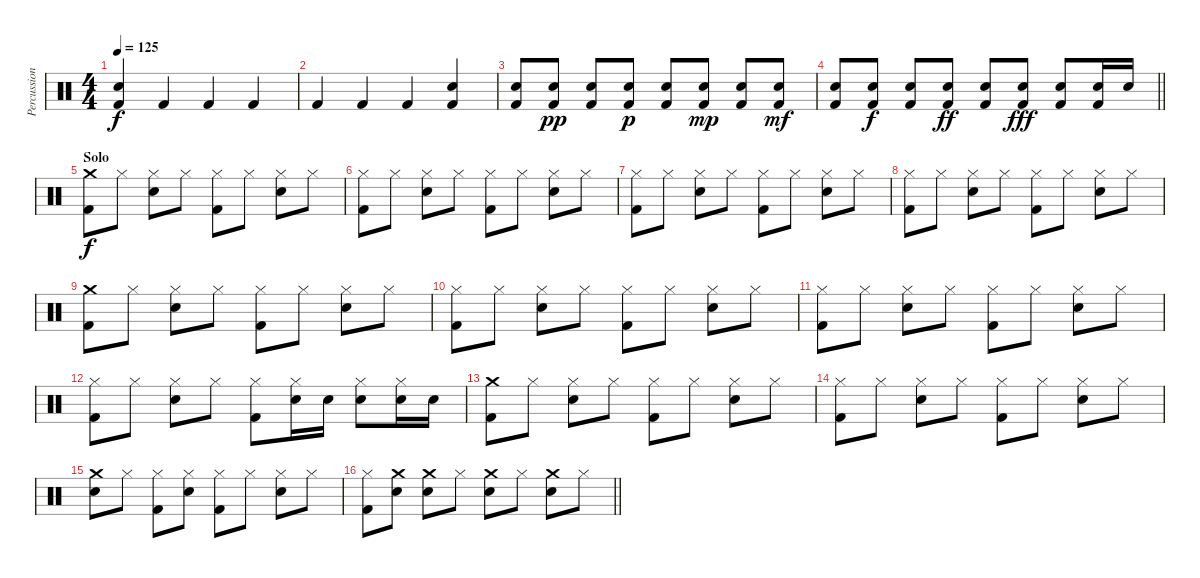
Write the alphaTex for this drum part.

\track ("Percussion" "Percussion") {instrument percussion}
\staff {score}
\articulation defaults
\ts (4 4)
\tempo 125
\clef neutral
\ks c
("Snare (hit) 2" "Kick (hit) 2").4{dy f} "Kick (hit) 2".4 "Kick (hit) 2".4 "Kick (hit) 2".4 |
"Kick (hit) 2".4 "Kick (hit) 2".4 "Kick (hit) 2".4 ("Snare (hit) 2" "Kick (hit) 2").4 |
("Snare (hit) 2" "Kick (hit) 2").8 ("Snare (hit) 2" "Kick (hit) 2").8{dy pp} ("Snare (hit) 2" "Kick (hit) 2").8 ("Snare (hit) 2" "Kick (hit) 2").8{dy p} ("Snare (hit) 2" "Kick (hit) 2").8 ("Snare (hit) 2" "Kick (hit) 2").8{dy mp} ("Snare (hit) 2" "Kick (hit) 2").8 ("Snare (hit) 2" "Kick (hit) 2").8{dy mf} |
\barLineRight lightlight
("Snare (hit) 2" "Kick (hit) 2").8 ("Snare (hit) 2" "Kick (hit) 2").8{dy f} ("Snare (hit) 2" "Kick (hit) 2").8 ("Snare (hit) 2" "Kick (hit) 2").8{dy ff} ("Snare (hit) 2" "Kick (hit) 2").8 ("Snare (hit) 2" "Kick (hit) 2").8{dy fff} ("Snare (hit) 2" "Kick (hit) 2").8 ("Snare (hit) 2" "Kick (hit) 2").16 "Snare (hit) 2".16 |
\section ("" "Solo")
("Crash medium (hit)" "Kick (hit) 2").8{dy f} "Hi-Hat (closed)".8 ("Hi-Hat (closed)" "Snare (hit) 2").8 "Hi-Hat (closed)".8 ("Hi-Hat (closed)" "Kick (hit) 2").8 "Hi-Hat (closed)".8 ("Hi-Hat (closed)" "Snare (hit) 2").8 "Hi-Hat (closed)".8 |
("Hi-Hat (closed)" "Kick (hit) 2").8 "Hi-Hat (closed)".8 ("Hi-Hat (closed)" "Snare (hit) 2").8 "Hi-Hat (closed)".8 ("Hi-Hat (closed)" "Kick (hit) 2").8 "Hi-Hat (closed)".8 ("Hi-Hat (closed)" "Snare (hit) 2").8 "Hi-Hat (closed)".8 |
("Hi-Hat (closed)" "Kick (hit) 2").8 "Hi-Hat (closed)".8 ("Hi-Hat (closed)" "Snare (hit) 2").8 "Hi-Hat (closed)".8 ("Hi-Hat (closed)" "Kick (hit) 2").8 "Hi-Hat (closed)".8 ("Hi-Hat (closed)" "Snare (hit) 2").8 "Hi-Hat (closed)".8 |
("Hi-Hat (closed)" "Kick (hit) 2").8 "Hi-Hat (closed)".8 ("Hi-Hat (closed)" "Snare (hit) 2").8 "Hi-Hat (closed)".8 ("Hi-Hat (closed)" "Kick (hit) 2").8 "Hi-Hat (closed)".8 ("Hi-Hat (closed)" "Snare (hit) 2").8 "Hi-Hat (closed)".8 |
("Crash medium (hit)" "Kick (hit) 2").8 "Hi-Hat (closed)".8 ("Hi-Hat (closed)" "Snare (hit) 2").8 "Hi-Hat (closed)".8 ("Hi-Hat (closed)" "Kick (hit) 2").8 "Hi-Hat (closed)".8 ("Hi-Hat (closed)" "Snare (hit) 2").8 "Hi-Hat (closed)".8 |
("Hi-Hat (closed)" "Kick (hit) 2").8 "Hi-Hat (closed)".8 ("Hi-Hat (closed)" "Snare (hit) 2").8 "Hi-Hat (closed)".8 ("Hi-Hat (closed)" "Kick (hit) 2").8 "Hi-Hat (closed)".8 ("Hi-Hat (closed)" "Snare (hit) 2").8 "Hi-Hat (closed)".8 |
("Hi-Hat (closed)" "Kick (hit) 2").8 "Hi-Hat (closed)".8 ("Hi-Hat (closed)" "Snare (hit) 2").8 "Hi-Hat (closed)".8 ("Hi-Hat (closed)" "Kick (hit) 2").8 "Hi-Hat (closed)".8 ("Hi-Hat (closed)" "Snare (hit) 2").8 "Hi-Hat (closed)".8 |
("Hi-Hat (closed)" "Kick (hit) 2").8 "Hi-Hat (closed)".8 ("Hi-Hat (closed)" "Snare (hit) 2").8 "Hi-Hat (closed)".8 ("Hi-Hat (closed)" "Kick (hit) 2").8 ("Hi-Hat (closed)" "Snare (hit) 2").16 "Snare (hit) 2".16 ("Hi-Hat (closed)" "Snare (hit) 2").8 ("Hi-Hat (closed)" "Snare (hit) 2").16 "Snare (hit) 2".16 |
("Crash medium (hit)" "Kick (hit) 2").8 "Hi-Hat (closed)".8 ("Hi-Hat (closed)" "Snare (hit) 2").8 "Hi-Hat (closed)".8 ("Hi-Hat (closed)" "Kick (hit) 2").8 "Hi-Hat (closed)".8 ("Hi-Hat (closed)" "Snare (hit) 2").8 "Hi-Hat (closed)".8 |
("Hi-Hat (closed)" "Kick (hit) 2").8 "Hi-Hat (closed)".8 ("Hi-Hat (closed)" "Snare (hit) 2").8 "Hi-Hat (closed)".8 ("Hi-Hat (closed)" "Kick (hit) 2").8 "Hi-Hat (closed)".8 ("Hi-Hat (closed)" "Snare (hit) 2").8 "Hi-Hat (closed)".8 |
("Crash medium (hit)" "Snare (hit) 2").8 "Hi-Hat (closed)".8 ("Hi-Hat (closed)" "Kick (hit) 2").8 ("Hi-Hat (closed)" "Snare (hit) 2").8 ("Hi-Hat (closed)" "Kick (hit) 2").8 "Hi-Hat (closed)".8 ("Hi-Hat (closed)" "Snare (hit) 2").8 "Hi-Hat (closed)".8 |
\barLineRight lightlight
("Hi-Hat (closed)" "Kick (hit) 2").8 ("Crash medium (hit)" "Snare (hit) 2").8 ("Crash medium (hit)" "Snare (hit) 2").8 "Hi-Hat (closed)".8 ("Crash medium (hit)" "Snare (hit) 2").8 "Hi-Hat (closed)".8 ("Crash medium (hit)" "Snare (hit) 2").8 "Hi-Hat (closed)".8
